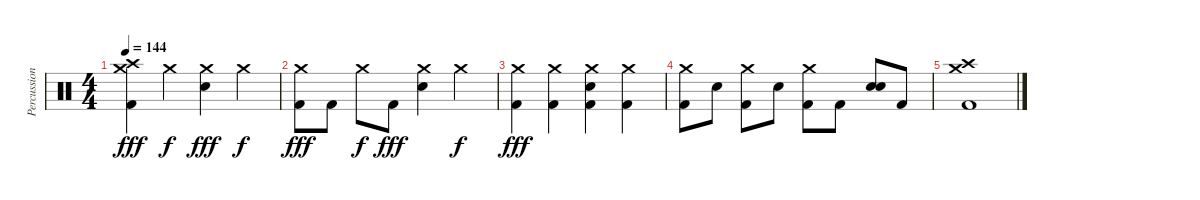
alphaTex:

\track ("Percussion" "Percussion") {instrument percussion}
\staff {score}
\articulation defaults
\ts (4 4)
\tempo 144
\clef neutral
\ks c
("Crash high (hit)" "Crash medium (hit)" "Kick (hit) 2").4{dy fff} "Crash medium (hit)".4{dy f} ("Crash medium (hit)" "Electric Snare (hit)").4{dy fff} "Crash medium (hit)".4{dy f} |
("Crash medium (hit)" "Kick (hit) 2").8{dy fff} "Kick (hit) 2".8 "Crash medium (hit)".8{dy f} "Kick (hit) 2".8{dy fff} ("Crash medium (hit)" "Electric Snare (hit)").4 "Crash medium (hit)".4{dy f} |
("Crash medium (hit)" "Kick (hit) 2").4{dy fff} ("Crash medium (hit)" "Kick (hit) 2").4 ("Crash medium (hit)" "Kick (hit) 2" "Electric Snare (hit)").4 ("Crash medium (hit)" "Kick (hit) 2").4 |
("Crash medium (hit)" "Kick (hit) 2").8 "Electric Snare (hit)".8 ("Crash medium (hit)" "Kick (hit) 2").8 "Electric Snare (hit)".8 ("Crash medium (hit)" "Kick (hit) 2").8 "Kick (hit) 2".8 ("Electric Snare (hit)" "Electric Snare (hit)").8{bd 480} "Kick (hit) 2".8 |
("Crash high (hit)" "Crash medium (hit)" "Kick (hit) 2").1
